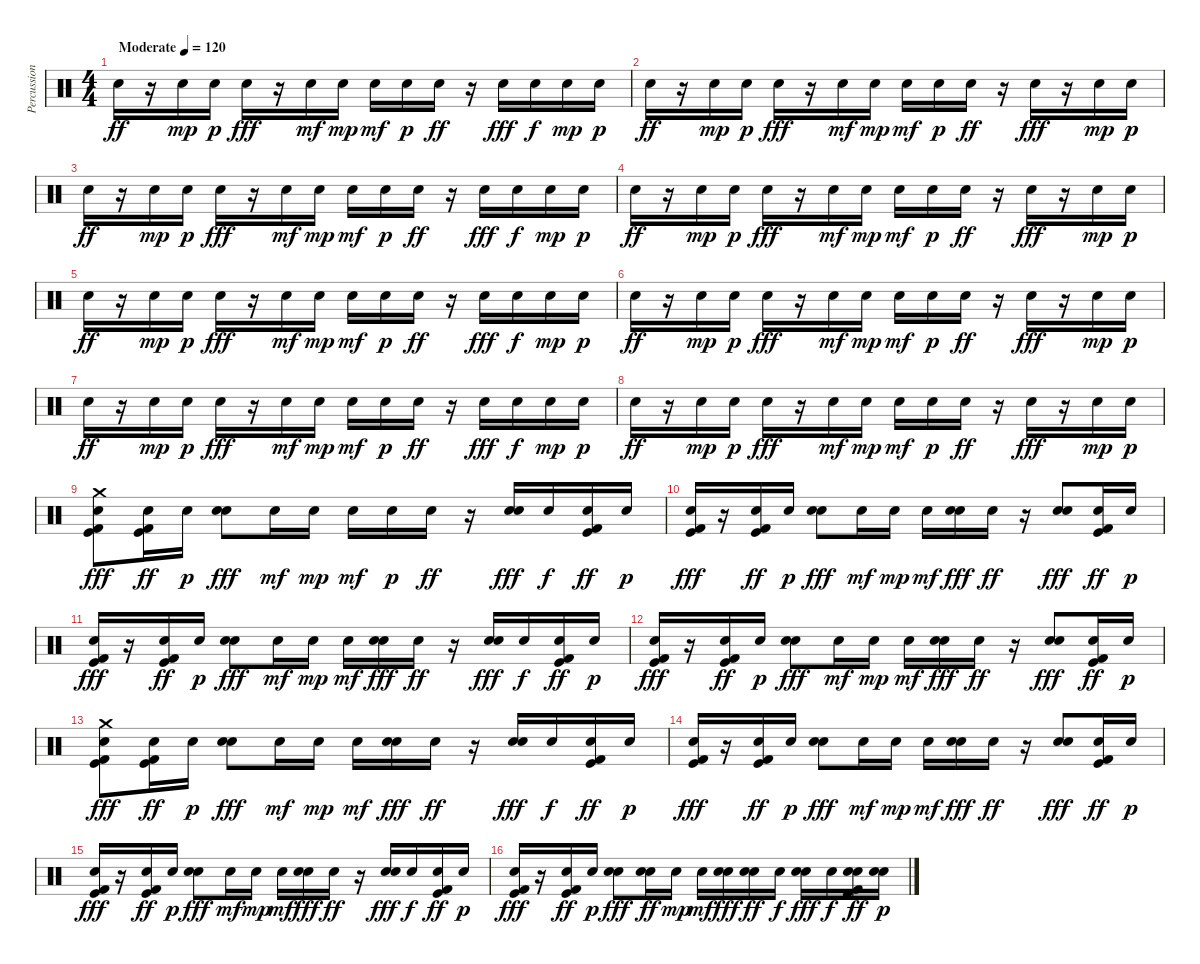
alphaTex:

\track ("Percussions" "Percussion") {instrument percussion}
\staff {score}
\articulation defaults
\ts (4 4)
\tempo (120 "Moderate")
\tempo 113
\tempo (120 "Moderate")
\clef neutral
\ks c "Electric Snare (hit)".16{dy ff}
r.16 "Electric Snare (hit)".16{dy mp} "Electric Snare (hit)".16{dy p} "Electric Snare (hit)".16{dy fff} r.16 "Electric Snare (hit)".16{dy mf} "Electric Snare (hit)".16{dy mp} "Electric Snare (hit)".16{dy mf} "Electric Snare (hit)".16{dy p} "Electric Snare (hit)".16{dy ff} r.16 "Electric Snare (hit)".16{dy fff} "Electric Snare (hit)".16{dy f} "Electric Snare (hit)".16{dy mp} "Electric Snare (hit)".16{dy p} |
"Electric Snare (hit)".16{dy ff} r.16 "Electric Snare (hit)".16{dy mp} "Electric Snare (hit)".16{dy p} "Electric Snare (hit)".16{dy fff} r.16 "Electric Snare (hit)".16{dy mf} "Electric Snare (hit)".16{dy mp} "Electric Snare (hit)".16{dy mf} "Electric Snare (hit)".16{dy p} "Electric Snare (hit)".16{dy ff} r.16 "Electric Snare (hit)".16{dy fff} r.16 "Electric Snare (hit)".16{dy mp} "Electric Snare (hit)".16{dy p} |
"Electric Snare (hit)".16{dy ff} r.16 "Electric Snare (hit)".16{dy mp} "Electric Snare (hit)".16{dy p} "Electric Snare (hit)".16{dy fff} r.16 "Electric Snare (hit)".16{dy mf} "Electric Snare (hit)".16{dy mp} "Electric Snare (hit)".16{dy mf} "Electric Snare (hit)".16{dy p} "Electric Snare (hit)".16{dy ff} r.16 "Electric Snare (hit)".16{dy fff} "Electric Snare (hit)".16{dy f} "Electric Snare (hit)".16{dy mp} "Electric Snare (hit)".16{dy p} |
"Electric Snare (hit)".16{dy ff} r.16 "Electric Snare (hit)".16{dy mp} "Electric Snare (hit)".16{dy p} "Electric Snare (hit)".16{dy fff} r.16 "Electric Snare (hit)".16{dy mf} "Electric Snare (hit)".16{dy mp} "Electric Snare (hit)".16{dy mf} "Electric Snare (hit)".16{dy p} "Electric Snare (hit)".16{dy ff} r.16 "Electric Snare (hit)".16{dy fff} r.16 "Electric Snare (hit)".16{dy mp} "Electric Snare (hit)".16{dy p} |
"Electric Snare (hit)".16{dy ff} r.16 "Electric Snare (hit)".16{dy mp} "Electric Snare (hit)".16{dy p} "Electric Snare (hit)".16{dy fff} r.16 "Electric Snare (hit)".16{dy mf} "Electric Snare (hit)".16{dy mp} "Electric Snare (hit)".16{dy mf} "Electric Snare (hit)".16{dy p} "Electric Snare (hit)".16{dy ff} r.16 "Electric Snare (hit)".16{dy fff} "Electric Snare (hit)".16{dy f} "Electric Snare (hit)".16{dy mp} "Electric Snare (hit)".16{dy p} |
"Electric Snare (hit)".16{dy ff} r.16 "Electric Snare (hit)".16{dy mp} "Electric Snare (hit)".16{dy p} "Electric Snare (hit)".16{dy fff} r.16 "Electric Snare (hit)".16{dy mf} "Electric Snare (hit)".16{dy mp} "Electric Snare (hit)".16{dy mf} "Electric Snare (hit)".16{dy p} "Electric Snare (hit)".16{dy ff} r.16 "Electric Snare (hit)".16{dy fff} r.16 "Electric Snare (hit)".16{dy mp} "Electric Snare (hit)".16{dy p} |
"Electric Snare (hit)".16{dy ff} r.16 "Electric Snare (hit)".16{dy mp} "Electric Snare (hit)".16{dy p} "Electric Snare (hit)".16{dy fff} r.16 "Electric Snare (hit)".16{dy mf} "Electric Snare (hit)".16{dy mp} "Electric Snare (hit)".16{dy mf} "Electric Snare (hit)".16{dy p} "Electric Snare (hit)".16{dy ff} r.16 "Electric Snare (hit)".16{dy fff} "Electric Snare (hit)".16{dy f} "Electric Snare (hit)".16{dy mp} "Electric Snare (hit)".16{dy p} |
"Electric Snare (hit)".16{dy ff} r.16 "Electric Snare (hit)".16{dy mp} "Electric Snare (hit)".16{dy p} "Electric Snare (hit)".16{dy fff} r.16 "Electric Snare (hit)".16{dy mf} "Electric Snare (hit)".16{dy mp} "Electric Snare (hit)".16{dy mf} "Electric Snare (hit)".16{dy p} "Electric Snare (hit)".16{dy ff} r.16 "Electric Snare (hit)".16{dy fff} r.16 "Electric Snare (hit)".16{dy mp} "Electric Snare (hit)".16{dy p} |
("Electric Snare (hit)" "Kick (hit) 2" "Kick (hit)" "Crash medium (hit)").8{dy fff volume 14} ("Electric Snare (hit)" "Kick (hit) 2" "Kick (hit)").16{dy ff} "Electric Snare (hit)".16{dy p} ("Snare (hit) 2" "Electric Snare (hit)").8{dy fff} "Electric Snare (hit)".16{dy mf} "Electric Snare (hit)".16{dy mp} "Electric Snare (hit)".16{dy mf} "Electric Snare (hit)".16{dy p} "Electric Snare (hit)".16{dy ff} r.16 ("Snare (hit) 2" "Electric Snare (hit)").16{dy fff} "Electric Snare (hit)".16{dy f} ("Electric Snare (hit)" "Kick (hit) 2" "Kick (hit)").16{dy ff} "Electric Snare (hit)".16{dy p} |
("Electric Snare (hit)" "Kick (hit) 2" "Kick (hit)").16{dy fff} r.16 ("Electric Snare (hit)" "Kick (hit) 2" "Kick (hit)").16{dy ff} "Electric Snare (hit)".16{dy p} ("Snare (hit) 2" "Electric Snare (hit)").8{dy fff} "Electric Snare (hit)".16{dy mf} "Electric Snare (hit)".16{dy mp} "Electric Snare (hit)".16{dy mf} ("Electric Snare (hit)" "Snare (hit) 2").16{dy fff} "Electric Snare (hit)".16{dy ff} r.16 ("Electric Snare (hit)" "Snare (hit) 2").8{dy fff} ("Electric Snare (hit)" "Kick (hit) 2" "Kick (hit)").16{dy ff} "Electric Snare (hit)".16{dy p} |
("Electric Snare (hit)" "Kick (hit) 2" "Kick (hit)").16{dy fff} r.16 ("Electric Snare (hit)" "Kick (hit) 2" "Kick (hit)").16{dy ff} "Electric Snare (hit)".16{dy p} ("Snare (hit) 2" "Electric Snare (hit)").8{dy fff} "Electric Snare (hit)".16{dy mf} "Electric Snare (hit)".16{dy mp} "Electric Snare (hit)".16{dy mf} ("Electric Snare (hit)" "Snare (hit) 2").16{dy fff} "Electric Snare (hit)".16{dy ff} r.16 ("Snare (hit) 2" "Electric Snare (hit)").16{dy fff} "Electric Snare (hit)".16{dy f} ("Electric Snare (hit)" "Kick (hit) 2" "Kick (hit)").16{dy ff} "Electric Snare (hit)".16{dy p} |
("Electric Snare (hit)" "Kick (hit) 2" "Kick (hit)").16{dy fff} r.16 ("Electric Snare (hit)" "Kick (hit) 2" "Kick (hit)").16{dy ff} "Electric Snare (hit)".16{dy p} ("Snare (hit) 2" "Electric Snare (hit)").8{dy fff} "Electric Snare (hit)".16{dy mf} "Electric Snare (hit)".16{dy mp} "Electric Snare (hit)".16{dy mf} ("Electric Snare (hit)" "Snare (hit) 2").16{dy fff} "Electric Snare (hit)".16{dy ff} r.16 ("Electric Snare (hit)" "Snare (hit) 2").8{dy fff} ("Electric Snare (hit)" "Kick (hit) 2" "Kick (hit)").16{dy ff} "Electric Snare (hit)".16{dy p} |
("Electric Snare (hit)" "Kick (hit) 2" "Kick (hit)" "Crash medium (hit)").8{dy fff} ("Electric Snare (hit)" "Kick (hit) 2" "Kick (hit)").16{dy ff} "Electric Snare (hit)".16{dy p} ("Snare (hit) 2" "Electric Snare (hit)").8{dy fff} "Electric Snare (hit)".16{dy mf} "Electric Snare (hit)".16{dy mp} "Electric Snare (hit)".16{dy mf} ("Electric Snare (hit)" "Snare (hit) 2").16{dy fff} "Electric Snare (hit)".16{dy ff} r.16 ("Snare (hit) 2" "Electric Snare (hit)").16{dy fff} "Electric Snare (hit)".16{dy f} ("Electric Snare (hit)" "Kick (hit) 2" "Kick (hit)").16{dy ff} "Electric Snare (hit)".16{dy p} |
("Electric Snare (hit)" "Kick (hit) 2" "Kick (hit)").16{dy fff} r.16 ("Electric Snare (hit)" "Kick (hit) 2" "Kick (hit)").16{dy ff} "Electric Snare (hit)".16{dy p} ("Snare (hit) 2" "Electric Snare (hit)").8{dy fff} "Electric Snare (hit)".16{dy mf} "Electric Snare (hit)".16{dy mp} "Electric Snare (hit)".16{dy mf} ("Electric Snare (hit)" "Snare (hit) 2").16{dy fff} "Electric Snare (hit)".16{dy ff} r.16 ("Electric Snare (hit)" "Snare (hit) 2").8{dy fff} ("Electric Snare (hit)" "Kick (hit) 2" "Kick (hit)").16{dy ff} "Electric Snare (hit)".16{dy p} |
("Electric Snare (hit)" "Kick (hit) 2" "Kick (hit)").16{dy fff} r.16 ("Electric Snare (hit)" "Kick (hit) 2" "Kick (hit)").16{dy ff} "Electric Snare (hit)".16{dy p} ("Snare (hit) 2" "Electric Snare (hit)").8{dy fff} "Electric Snare (hit)".16{dy mf} "Electric Snare (hit)".16{dy mp} "Electric Snare (hit)".16{dy mf} ("Electric Snare (hit)" "Snare (hit) 2").16{dy fff} "Electric Snare (hit)".16{dy ff} r.16 ("Snare (hit) 2" "Electric Snare (hit)").16{dy fff} "Electric Snare (hit)".16{dy f} ("Electric Snare (hit)" "Kick (hit) 2" "Kick (hit)").16{dy ff} "Electric Snare (hit)".16{dy p} |
("Electric Snare (hit)" "Kick (hit) 2" "Kick (hit)").16{dy fff} r.16 ("Electric Snare (hit)" "Kick (hit) 2" "Kick (hit)").16{dy ff} "Electric Snare (hit)".16{dy p} ("Snare (hit) 2" "Electric Snare (hit)").8{dy fff} ("Electric Snare (hit)" "Snare (hit) 2").16{dy ff} "Electric Snare (hit)".16{dy mp} "Electric Snare (hit)".16{dy mf} ("Electric Snare (hit)" "Snare (hit) 2").16{dy fff} ("Electric Snare (hit)" "Snare (hit) 2").16{dy ff} "Snare (hit) 2".16{dy f} ("Electric Snare (hit)" "Snare (hit) 2").16{dy fff} "Snare (hit) 2".16{dy f} ("Electric Snare (hit)" "Kick (hit) 2" "Kick (hit)" "Snare (hit) 2").16{dy ff} ("Electric Snare (hit)" "Snare (hit) 2").16{dy p}
